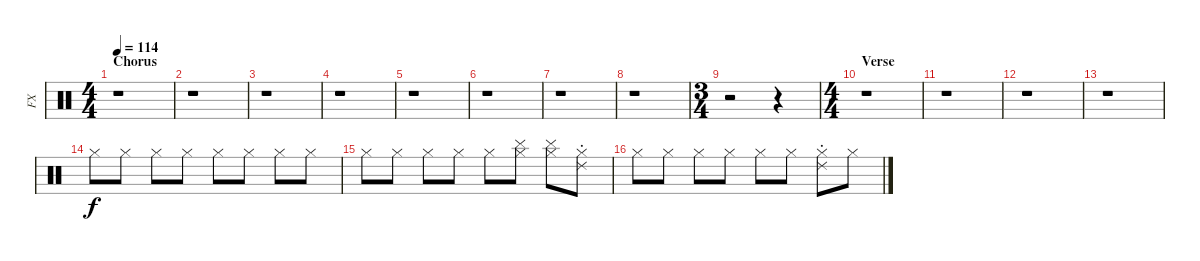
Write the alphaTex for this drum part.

\track ("FX" "FX") {instrument percussion}
\staff {score}
\articulation defaults
\ts (4 4)
\section ("" "Chorus")
\tempo 114
\clef neutral
\ks c
r.1{dy f} |
r.1 |
r.1 |
r.1 |
r.1 |
r.1 |
r.1 |
r.1 |
\ts (3 4)
r.2 r.4 |
\ts (4 4)
\section ("" "Verse")
r.1 |
r.1 |
r.1 |
r.1 |
"Hi-Hat (closed)".8 "Hi-Hat (closed)".8 "Hi-Hat (closed)".8 "Hi-Hat (closed)".8 "Hi-Hat (closed)".8 "Hi-Hat (closed)".8 "Hi-Hat (closed)".8 "Hi-Hat (closed)".8 |
"Hi-Hat (closed)".8 "Hi-Hat (closed)".8 "Hi-Hat (closed)".8 "Hi-Hat (closed)".8 "Hi-Hat (closed)".8 ("Hi-Hat (closed)" "Cymbal (hit)").8 ("Hi-Hat (closed)" "Cymbal (hit)").8 ("Hi-Hat (closed)" "Ride (choke) 2").8 |
"Hi-Hat (closed)".8 "Hi-Hat (closed)".8 "Hi-Hat (closed)".8 "Hi-Hat (closed)".8 "Hi-Hat (closed)".8 "Hi-Hat (closed)".8 ("Hi-Hat (closed)" "Ride (choke) 2").8 "Hi-Hat (closed)".8
